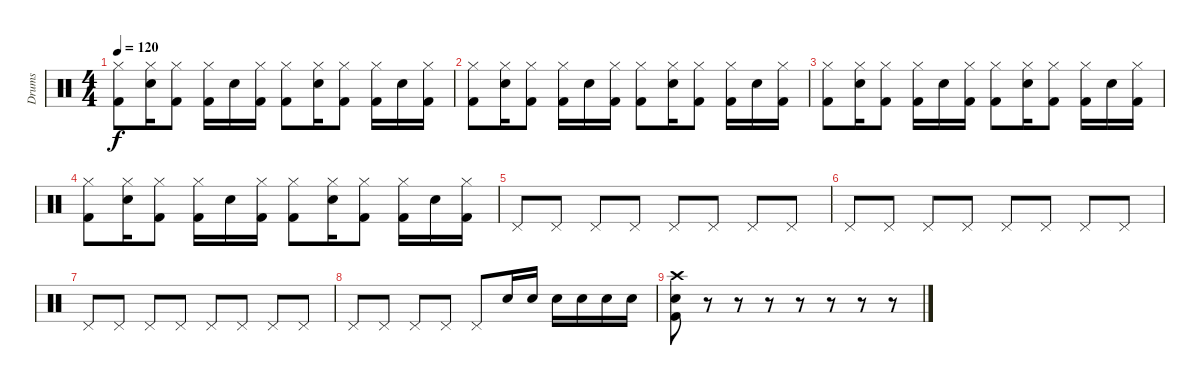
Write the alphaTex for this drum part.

\track ("Drums" "Drums") {instrument percussion}
\staff {score}
\articulation defaults
\ts (4 4)
\tempo 120
\clef neutral
\ks c
("Hi-Hat (closed)" "Kick (hit) 2").8{dy f} ("Hi-Hat (closed)" "Electric Snare (hit)").16 ("Hi-Hat (closed)" "Kick (hit) 2").8 ("Hi-Hat (closed)" "Kick (hit) 2").16 "Electric Snare (hit)".16 ("Hi-Hat (closed)" "Kick (hit) 2").16 ("Hi-Hat (closed)" "Kick (hit) 2").8 ("Hi-Hat (closed)" "Electric Snare (hit)").16 ("Hi-Hat (closed)" "Kick (hit) 2").8 ("Hi-Hat (closed)" "Kick (hit) 2").16 "Electric Snare (hit)".16 ("Hi-Hat (closed)" "Kick (hit) 2").16 |
("Hi-Hat (closed)" "Kick (hit) 2").8 ("Hi-Hat (closed)" "Electric Snare (hit)").16 ("Hi-Hat (closed)" "Kick (hit) 2").8 ("Hi-Hat (closed)" "Kick (hit) 2").16 "Electric Snare (hit)".16 ("Hi-Hat (closed)" "Kick (hit) 2").16 ("Hi-Hat (closed)" "Kick (hit) 2").8 ("Hi-Hat (closed)" "Electric Snare (hit)").16 ("Hi-Hat (closed)" "Kick (hit) 2").8 ("Hi-Hat (closed)" "Kick (hit) 2").16 "Electric Snare (hit)".16 ("Hi-Hat (closed)" "Kick (hit) 2").16 |
("Hi-Hat (closed)" "Kick (hit) 2").8 ("Hi-Hat (closed)" "Electric Snare (hit)").16 ("Hi-Hat (closed)" "Kick (hit) 2").8 ("Hi-Hat (closed)" "Kick (hit) 2").16 "Electric Snare (hit)".16 ("Hi-Hat (closed)" "Kick (hit) 2").16 ("Hi-Hat (closed)" "Kick (hit) 2").8 ("Hi-Hat (closed)" "Electric Snare (hit)").16 ("Hi-Hat (closed)" "Kick (hit) 2").8 ("Hi-Hat (closed)" "Kick (hit) 2").16 "Electric Snare (hit)".16 ("Hi-Hat (closed)" "Kick (hit) 2").16 |
("Hi-Hat (closed)" "Kick (hit) 2").8 ("Hi-Hat (closed)" "Electric Snare (hit)").16 ("Hi-Hat (closed)" "Kick (hit) 2").8 ("Hi-Hat (closed)" "Kick (hit) 2").16 "Electric Snare (hit)".16 ("Hi-Hat (closed)" "Kick (hit) 2").16 ("Hi-Hat (closed)" "Kick (hit) 2").8 ("Hi-Hat (closed)" "Electric Snare (hit)").16 ("Hi-Hat (closed)" "Kick (hit) 2").8 ("Hi-Hat (closed)" "Kick (hit) 2").16 "Electric Snare (hit)".16 ("Hi-Hat (closed)" "Kick (hit) 2").16 |
"Pedal Hi-Hat (hit)".8 "Pedal Hi-Hat (hit)".8 "Pedal Hi-Hat (hit)".8 "Pedal Hi-Hat (hit)".8 "Pedal Hi-Hat (hit)".8 "Pedal Hi-Hat (hit)".8 "Pedal Hi-Hat (hit)".8 "Pedal Hi-Hat (hit)".8 |
"Pedal Hi-Hat (hit)".8 "Pedal Hi-Hat (hit)".8 "Pedal Hi-Hat (hit)".8 "Pedal Hi-Hat (hit)".8 "Pedal Hi-Hat (hit)".8 "Pedal Hi-Hat (hit)".8 "Pedal Hi-Hat (hit)".8 "Pedal Hi-Hat (hit)".8 |
"Pedal Hi-Hat (hit)".8 "Pedal Hi-Hat (hit)".8 "Pedal Hi-Hat (hit)".8 "Pedal Hi-Hat (hit)".8 "Pedal Hi-Hat (hit)".8 "Pedal Hi-Hat (hit)".8 "Pedal Hi-Hat (hit)".8 "Pedal Hi-Hat (hit)".8 |
"Pedal Hi-Hat (hit)".8 "Pedal Hi-Hat (hit)".8 "Pedal Hi-Hat (hit)".8 "Pedal Hi-Hat (hit)".8 "Pedal Hi-Hat (hit)".8 "Electric Snare (hit)".16 "Electric Snare (hit)".16 "Electric Snare (hit)".16 "Electric Snare (hit)".16 "Electric Snare (hit)".16 "Electric Snare (hit)".16 |
("Crash high (hit)" "Electric Snare (hit)" "Kick (hit) 2").8 r.8 r.8 r.8 r.8 r.8 r.8 r.8
